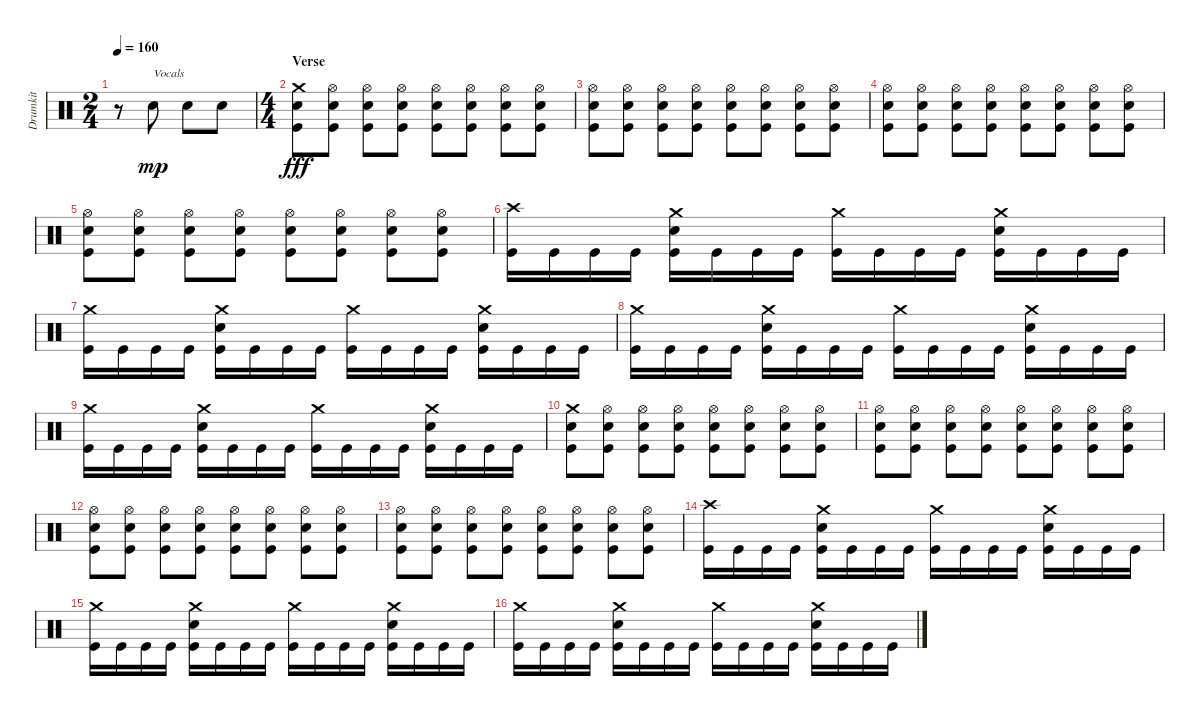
\track ("Drumkit" "Drumkit") {instrument percussion}
\staff {score}
\articulation defaults
\ts (2 4)
\tempo 160
\clef neutral
\ks c
r.8{dy mp} "Snare (hit) 2".8{txt "Vocals"} "Snare (hit) 2".8 "Snare (hit) 2".8 |
\ts (4 4)
\section ("" "Verse")
("Kick (hit)" "Crash medium (hit)" "Snare (hit) 2").8{dy fff} ("Kick (hit)" "Snare (hit) 2" "Hi-Hat (open)").8 ("Kick (hit)" "Hi-Hat (open)" "Snare (hit) 2").8 ("Kick (hit)" "Snare (hit) 2" "Hi-Hat (open)").8 ("Kick (hit)" "Hi-Hat (open)" "Snare (hit) 2").8 ("Kick (hit)" "Snare (hit) 2" "Hi-Hat (open)").8 ("Kick (hit)" "Hi-Hat (open)" "Snare (hit) 2").8 ("Kick (hit)" "Snare (hit) 2" "Hi-Hat (open)").8 |
("Kick (hit)" "Snare (hit) 2" "Hi-Hat (open)").8 ("Kick (hit)" "Snare (hit) 2" "Hi-Hat (open)").8 ("Kick (hit)" "Hi-Hat (open)" "Snare (hit) 2").8 ("Kick (hit)" "Snare (hit) 2" "Hi-Hat (open)").8 ("Kick (hit)" "Hi-Hat (open)" "Snare (hit) 2").8 ("Kick (hit)" "Snare (hit) 2" "Hi-Hat (open)").8 ("Kick (hit)" "Hi-Hat (open)" "Snare (hit) 2").8 ("Kick (hit)" "Snare (hit) 2" "Hi-Hat (open)").8 |
("Kick (hit)" "Snare (hit) 2" "Hi-Hat (open)").8 ("Kick (hit)" "Snare (hit) 2" "Hi-Hat (open)").8 ("Kick (hit)" "Hi-Hat (open)" "Snare (hit) 2").8 ("Kick (hit)" "Snare (hit) 2" "Hi-Hat (open)").8 ("Kick (hit)" "Hi-Hat (open)" "Snare (hit) 2").8 ("Kick (hit)" "Snare (hit) 2" "Hi-Hat (open)").8 ("Kick (hit)" "Hi-Hat (open)" "Snare (hit) 2").8 ("Kick (hit)" "Snare (hit) 2" "Hi-Hat (open)").8 |
("Kick (hit)" "Snare (hit) 2" "Hi-Hat (open)").8 ("Kick (hit)" "Snare (hit) 2" "Hi-Hat (open)").8 ("Kick (hit)" "Hi-Hat (open)" "Snare (hit) 2").8 ("Kick (hit)" "Snare (hit) 2" "Hi-Hat (open)").8 ("Kick (hit)" "Hi-Hat (open)" "Snare (hit) 2").8 ("Kick (hit)" "Snare (hit) 2" "Hi-Hat (open)").8 ("Kick (hit)" "Hi-Hat (open)" "Snare (hit) 2").8 ("Kick (hit)" "Snare (hit) 2" "Hi-Hat (open)").8 |
\section ("" "")
("Kick (hit)" "Crash high (hit)").16 "Kick (hit)".16 "Kick (hit)".16 "Kick (hit)".16 ("Kick (hit)" "Crash medium (hit)" "Snare (hit) 2").16 "Kick (hit)".16 "Kick (hit)".16 "Kick (hit)".16 ("Kick (hit)" "Crash medium (hit)").16 "Kick (hit)".16 "Kick (hit)".16 "Kick (hit)".16 ("Kick (hit)" "Crash medium (hit)" "Snare (hit) 2").16 "Kick (hit)".16 "Kick (hit)".16 "Kick (hit)".16 |
("Kick (hit)" "Crash medium (hit)").16 "Kick (hit)".16 "Kick (hit)".16 "Kick (hit)".16 ("Kick (hit)" "Crash medium (hit)" "Snare (hit) 2").16 "Kick (hit)".16 "Kick (hit)".16 "Kick (hit)".16 ("Kick (hit)" "Crash medium (hit)").16 "Kick (hit)".16 "Kick (hit)".16 "Kick (hit)".16 ("Kick (hit)" "Crash medium (hit)" "Snare (hit) 2").16 "Kick (hit)".16 "Kick (hit)".16 "Kick (hit)".16 |
("Kick (hit)" "Crash medium (hit)").16 "Kick (hit)".16 "Kick (hit)".16 "Kick (hit)".16 ("Kick (hit)" "Crash medium (hit)" "Snare (hit) 2").16 "Kick (hit)".16 "Kick (hit)".16 "Kick (hit)".16 ("Kick (hit)" "Crash medium (hit)").16 "Kick (hit)".16 "Kick (hit)".16 "Kick (hit)".16 ("Kick (hit)" "Crash medium (hit)" "Snare (hit) 2").16 "Kick (hit)".16 "Kick (hit)".16 "Kick (hit)".16 |
("Kick (hit)" "Crash medium (hit)").16 "Kick (hit)".16 "Kick (hit)".16 "Kick (hit)".16 ("Kick (hit)" "Crash medium (hit)" "Snare (hit) 2").16 "Kick (hit)".16 "Kick (hit)".16 "Kick (hit)".16 ("Kick (hit)" "Crash medium (hit)").16 "Kick (hit)".16 "Kick (hit)".16 "Kick (hit)".16 ("Kick (hit)" "Crash medium (hit)" "Snare (hit) 2").16 "Kick (hit)".16 "Kick (hit)".16 "Kick (hit)".16 |
\section ("" "")
("Kick (hit)" "Crash medium (hit)" "Snare (hit) 2").8 ("Kick (hit)" "Snare (hit) 2" "Hi-Hat (open)").8 ("Kick (hit)" "Hi-Hat (open)" "Snare (hit) 2").8 ("Kick (hit)" "Snare (hit) 2" "Hi-Hat (open)").8 ("Kick (hit)" "Hi-Hat (open)" "Snare (hit) 2").8 ("Kick (hit)" "Snare (hit) 2" "Hi-Hat (open)").8 ("Kick (hit)" "Hi-Hat (open)" "Snare (hit) 2").8 ("Kick (hit)" "Snare (hit) 2" "Hi-Hat (open)").8 |
("Kick (hit)" "Snare (hit) 2" "Hi-Hat (open)").8 ("Kick (hit)" "Snare (hit) 2" "Hi-Hat (open)").8 ("Kick (hit)" "Hi-Hat (open)" "Snare (hit) 2").8 ("Kick (hit)" "Snare (hit) 2" "Hi-Hat (open)").8 ("Kick (hit)" "Hi-Hat (open)" "Snare (hit) 2").8 ("Kick (hit)" "Snare (hit) 2" "Hi-Hat (open)").8 ("Kick (hit)" "Hi-Hat (open)" "Snare (hit) 2").8 ("Kick (hit)" "Snare (hit) 2" "Hi-Hat (open)").8 |
("Kick (hit)" "Snare (hit) 2" "Hi-Hat (open)").8 ("Kick (hit)" "Snare (hit) 2" "Hi-Hat (open)").8 ("Kick (hit)" "Hi-Hat (open)" "Snare (hit) 2").8 ("Kick (hit)" "Snare (hit) 2" "Hi-Hat (open)").8 ("Kick (hit)" "Hi-Hat (open)" "Snare (hit) 2").8 ("Kick (hit)" "Snare (hit) 2" "Hi-Hat (open)").8 ("Kick (hit)" "Hi-Hat (open)" "Snare (hit) 2").8 ("Kick (hit)" "Snare (hit) 2" "Hi-Hat (open)").8 |
("Kick (hit)" "Snare (hit) 2" "Hi-Hat (open)").8 ("Kick (hit)" "Snare (hit) 2" "Hi-Hat (open)").8 ("Kick (hit)" "Hi-Hat (open)" "Snare (hit) 2").8 ("Kick (hit)" "Snare (hit) 2" "Hi-Hat (open)").8 ("Kick (hit)" "Hi-Hat (open)" "Snare (hit) 2").8 ("Kick (hit)" "Snare (hit) 2" "Hi-Hat (open)").8 ("Kick (hit)" "Hi-Hat (open)" "Snare (hit) 2").8 ("Kick (hit)" "Snare (hit) 2" "Hi-Hat (open)").8 |
\section ("" "")
("Kick (hit)" "Crash high (hit)").16 "Kick (hit)".16 "Kick (hit)".16 "Kick (hit)".16 ("Kick (hit)" "Crash medium (hit)" "Snare (hit) 2").16 "Kick (hit)".16 "Kick (hit)".16 "Kick (hit)".16 ("Kick (hit)" "Crash medium (hit)").16 "Kick (hit)".16 "Kick (hit)".16 "Kick (hit)".16 ("Kick (hit)" "Crash medium (hit)" "Snare (hit) 2").16 "Kick (hit)".16 "Kick (hit)".16 "Kick (hit)".16 |
("Kick (hit)" "Crash medium (hit)").16 "Kick (hit)".16 "Kick (hit)".16 "Kick (hit)".16 ("Kick (hit)" "Crash medium (hit)" "Snare (hit) 2").16 "Kick (hit)".16 "Kick (hit)".16 "Kick (hit)".16 ("Kick (hit)" "Crash medium (hit)").16 "Kick (hit)".16 "Kick (hit)".16 "Kick (hit)".16 ("Kick (hit)" "Crash medium (hit)" "Snare (hit) 2").16 "Kick (hit)".16 "Kick (hit)".16 "Kick (hit)".16 |
("Kick (hit)" "Crash medium (hit)").16 "Kick (hit)".16 "Kick (hit)".16 "Kick (hit)".16 ("Kick (hit)" "Crash medium (hit)" "Snare (hit) 2").16 "Kick (hit)".16 "Kick (hit)".16 "Kick (hit)".16 ("Kick (hit)" "Crash medium (hit)").16 "Kick (hit)".16 "Kick (hit)".16 "Kick (hit)".16 ("Kick (hit)" "Crash medium (hit)" "Snare (hit) 2").16 "Kick (hit)".16 "Kick (hit)".16 "Kick (hit)".16
